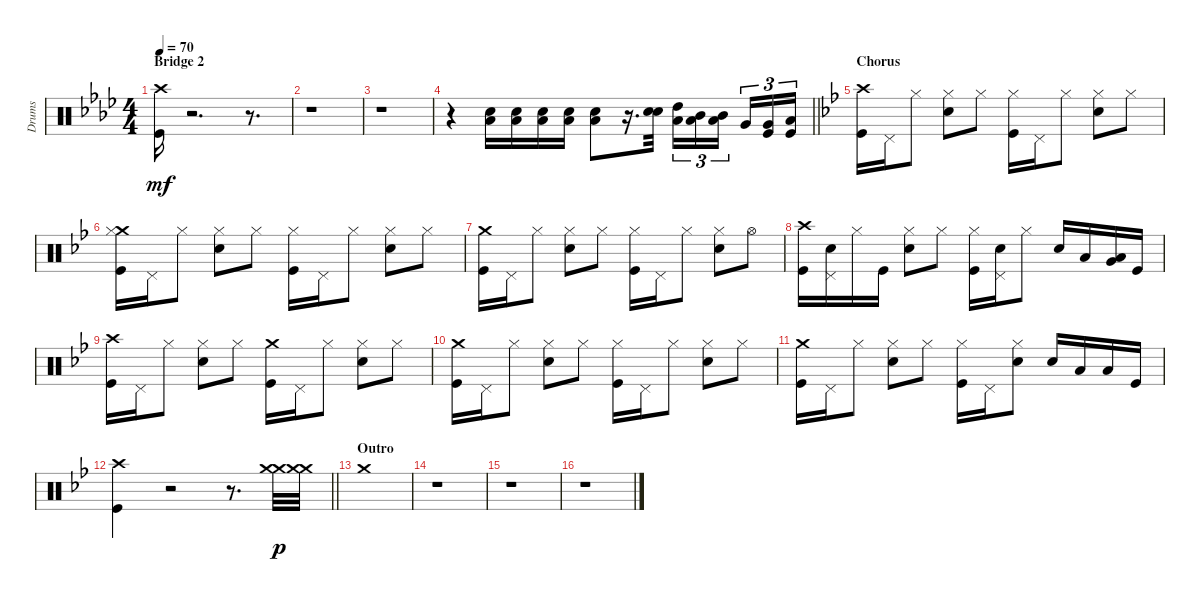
\track ("Drums" "Drums") {instrument percussion}
\staff {score}
\articulation defaults
\ts (4 4)
\section ("" "Bridge 2")
\tempo 70
\clef neutral
\ks ab
("Crash high (hit)" "Kick (hit)").16{dy mf} r.2{d} r.8{d} |
r.1 |
r.1 |
\barLineRight lightlight
r.4 ("Low Floor Tom (hit)" "Electric Snare (hit)").16 ("Low Floor Tom (hit)" "Electric Snare (hit)").16 ("Low Floor Tom (hit)" "Electric Snare (hit)").16 ("Low Floor Tom (hit)" "Electric Snare (hit)").16 ("Low Floor Tom (hit)" "Electric Snare (hit)").8 r.16{d} ("Electric Snare (hit)" "Electric Snare (hit)").32 ("High Tom (hit)" "Low Tom (hit)").16{tu (3 2)} ("Mid Tom (hit)" "Low Tom (hit)").16{tu (3 2)} ("Mid Tom (hit)" "Low Tom (hit)").16{tu (3 2)} "Very Low Tom (hit)".16{tu (3 2)} ("Very Low Tom (hit)" "Kick (hit)").16{tu (3 2)} ("Low Floor Tom (hit)" "Kick (hit)").16{tu (3 2)} |
\section ("" "Chorus")
\ks bb
("Crash high (hit)" "Kick (hit)").16 "Pedal Hi-Hat (hit)".16 "Hi-Hat (closed)".8 ("Hi-Hat (closed)" "Electric Snare (hit)").8 "Hi-Hat (closed)".8 ("Hi-Hat (closed)" "Kick (hit)").16 "Pedal Hi-Hat (hit)".16 "Hi-Hat (closed)".8 ("Hi-Hat (closed)" "Electric Snare (hit)").8 "Hi-Hat (closed)".8 |
("Crash medium (hit)" "Hi-Hat (closed)" "Kick (hit)").16 "Pedal Hi-Hat (hit)".16 "Hi-Hat (closed)".8 ("Hi-Hat (closed)" "Electric Snare (hit)").8 "Hi-Hat (closed)".8 ("Hi-Hat (closed)" "Kick (hit)").16 "Pedal Hi-Hat (hit)".16 "Hi-Hat (closed)".8 ("Hi-Hat (closed)" "Electric Snare (hit)").8 "Hi-Hat (closed)".8 |
("Crash medium (hit)" "Kick (hit)").16 "Pedal Hi-Hat (hit)".16 "Hi-Hat (closed)".8 ("Hi-Hat (closed)" "Electric Snare (hit)").8 "Hi-Hat (closed)".8 ("Hi-Hat (closed)" "Kick (hit)").16 "Pedal Hi-Hat (hit)".16 "Hi-Hat (closed)".8 ("Hi-Hat (closed)" "Electric Snare (hit)").8 "Hi-Hat (open)".8 |
("Crash high (hit)" "Kick (hit)").16 ("Pedal Hi-Hat (hit)" "Electric Snare (hit)").16 "Hi-Hat (closed)".16 "Kick (hit)".16 ("Hi-Hat (closed)" "Electric Snare (hit)").8 "Hi-Hat (closed)".8 ("Hi-Hat (closed)" "Kick (hit)").16 ("Pedal Hi-Hat (hit)" "Electric Snare (hit)").16 "Hi-Hat (closed)".8 "Electric Snare (hit)".16 "Low Tom (hit)".16 ("Very Low Tom (hit)" "Low Floor Tom (hit)").16 "Kick (hit)".16 |
("Crash high (hit)" "Kick (hit)").16 "Pedal Hi-Hat (hit)".16 "Hi-Hat (closed)".8 ("Hi-Hat (closed)" "Electric Snare (hit)").8 "Hi-Hat (closed)".8 ("Crash medium (hit)" "Kick (hit)").16 "Pedal Hi-Hat (hit)".16 "Hi-Hat (closed)".8 ("Hi-Hat (closed)" "Electric Snare (hit)").8 "Hi-Hat (closed)".8 |
("Crash medium (hit)" "Kick (hit)").16 "Pedal Hi-Hat (hit)".16 "Hi-Hat (closed)".8 ("Hi-Hat (closed)" "Electric Snare (hit)").8 "Hi-Hat (closed)".8 ("Hi-Hat (closed)" "Kick (hit)").16 "Pedal Hi-Hat (hit)".16 "Hi-Hat (closed)".8 ("Hi-Hat (closed)" "Electric Snare (hit)").8 "Hi-Hat (closed)".8 |
("Crash medium (hit)" "Kick (hit)").16 "Pedal Hi-Hat (hit)".16 "Hi-Hat (closed)".8 ("Hi-Hat (closed)" "Electric Snare (hit)").8 "Hi-Hat (closed)".8 ("Hi-Hat (closed)" "Kick (hit)").16 "Pedal Hi-Hat (hit)".16 ("Hi-Hat (closed)" "Electric Snare (hit)").8 "Electric Snare (hit)".16 "Low Tom (hit)".16 "Low Floor Tom (hit)".16 "Kick (hit)".16 |
\barLineRight lightlight
("Crash high (hit)" "Kick (hit)").4 r.2 r.8{d} ("Crash medium (hit)" "Crash medium (hit)").32{dy p} ("Crash medium (hit)" "Crash medium (hit)").32 |
\section ("" "Outro")
"Crash medium (hit)".1 |
r.1 |
r.1 |
r.1
